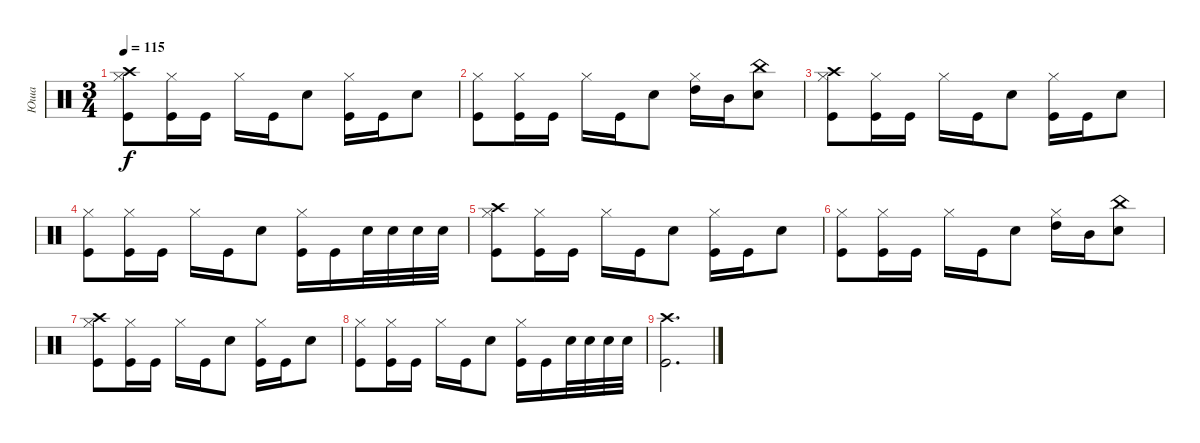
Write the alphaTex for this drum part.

\track ("Юша" "Юша") {instrument percussion}
\staff {score}
\articulation defaults
\ts (3 4)
\tempo 115
\clef neutral
\ks c
("Hi-Hat (closed)" "Kick (hit)" "Crash high (hit)").8{dy f} ("Kick (hit)" "Hi-Hat (closed)").16 "Kick (hit)".16 "Hi-Hat (closed)".16 "Kick (hit)".16 "Snare (hit) 2".8 ("Kick (hit)" "Hi-Hat (closed)").16 "Kick (hit)".16 "Snare (hit) 2".8 |
("Hi-Hat (closed)" "Kick (hit)").8 ("Kick (hit)" "Hi-Hat (closed)").16 "Kick (hit)".16 "Hi-Hat (closed)".16 "Kick (hit)".16 "Snare (hit) 2".8 ("Hi-Hat (closed)" "High Tom (hit)").16 "Mid Tom (hit)".16 ("Snare (hit) 2" "China (hit)").8 |
("Hi-Hat (closed)" "Kick (hit)" "Crash high (hit)").8 ("Kick (hit)" "Hi-Hat (closed)").16 "Kick (hit)".16 "Hi-Hat (closed)".16 "Kick (hit)".16 "Snare (hit) 2".8 ("Kick (hit)" "Hi-Hat (closed)").16 "Kick (hit)".16 "Snare (hit) 2".8 |
("Hi-Hat (closed)" "Kick (hit)").8 ("Kick (hit)" "Hi-Hat (closed)").16 "Kick (hit)".16 "Hi-Hat (closed)".16 "Kick (hit)".16 "Snare (hit) 2".8 ("Kick (hit)" "Hi-Hat (closed)").16 "Kick (hit)".16 "Snare (hit) 2".32 "Snare (hit) 2".32 "Snare (hit) 2".32 "Snare (hit) 2".32 |
("Hi-Hat (closed)" "Kick (hit)" "Crash high (hit)").8 ("Kick (hit)" "Hi-Hat (closed)").16 "Kick (hit)".16 "Hi-Hat (closed)".16 "Kick (hit)".16 "Snare (hit) 2".8 ("Kick (hit)" "Hi-Hat (closed)").16 "Kick (hit)".16 "Snare (hit) 2".8 |
("Hi-Hat (closed)" "Kick (hit)").8 ("Kick (hit)" "Hi-Hat (closed)").16 "Kick (hit)".16 "Hi-Hat (closed)".16 "Kick (hit)".16 "Snare (hit) 2".8 ("Hi-Hat (closed)" "High Tom (hit)").16 "Mid Tom (hit)".16 ("Snare (hit) 2" "China (hit)").8 |
("Hi-Hat (closed)" "Kick (hit)" "Crash high (hit)").8 ("Kick (hit)" "Hi-Hat (closed)").16 "Kick (hit)".16 "Hi-Hat (closed)".16 "Kick (hit)".16 "Snare (hit) 2".8 ("Kick (hit)" "Hi-Hat (closed)").16 "Kick (hit)".16 "Snare (hit) 2".8 |
("Hi-Hat (closed)" "Kick (hit)").8 ("Kick (hit)" "Hi-Hat (closed)").16 "Kick (hit)".16 "Hi-Hat (closed)".16 "Kick (hit)".16 "Snare (hit) 2".8 ("Kick (hit)" "Hi-Hat (closed)").16 "Kick (hit)".16 "Snare (hit) 2".32 "Snare (hit) 2".32 "Snare (hit) 2".32 "Snare (hit) 2".32 |
("Kick (hit)" "Crash high (hit)").2{d}
